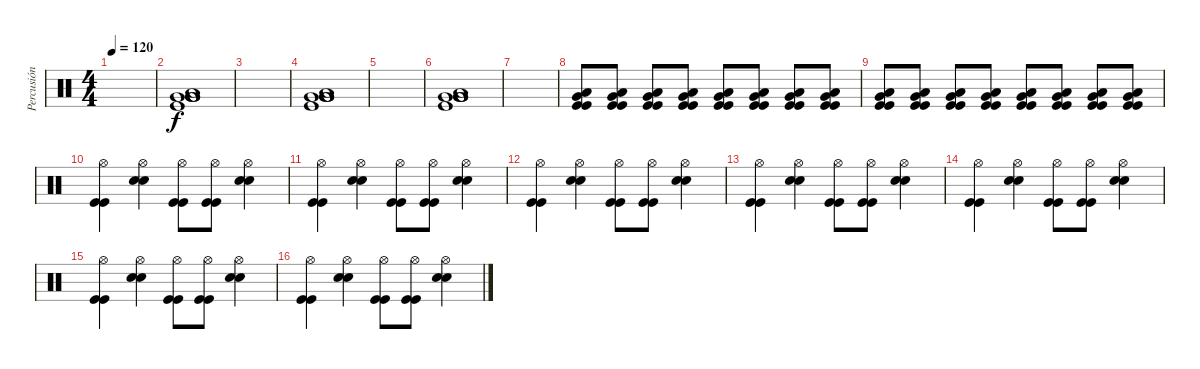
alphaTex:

\track ("Percusión" "Percusión") {instrument percussion}
\staff {score}
\articulation defaults
\ts (4 4)
\tempo 120
\clef neutral
\ks c
|
("Very Low Tom (hit)" "Very Low Tom (hit)" "Kick (hit)" "Very Low Tom (hit)" "Very Low Tom (hit)" "Low Tom (hit)").1 |
|
("Very Low Tom (hit)" "Very Low Tom (hit)" "Kick (hit)" "Very Low Tom (hit)" "Very Low Tom (hit)" "Low Tom (hit)").1 |
|
("Very Low Tom (hit)" "Very Low Tom (hit)" "Kick (hit)" "Very Low Tom (hit)" "Very Low Tom (hit)" "Low Tom (hit)").1 |
|
("Very Low Tom (hit)" "Kick (hit)" "Low Tom (hit)" "Kick (hit)").8 ("Very Low Tom (hit)" "Kick (hit)" "Low Tom (hit)" "Kick (hit)").8 ("Very Low Tom (hit)" "Kick (hit)" "Low Tom (hit)" "Kick (hit)").8 ("Very Low Tom (hit)" "Kick (hit)" "Low Tom (hit)" "Kick (hit)").8 ("Very Low Tom (hit)" "Kick (hit)" "Low Tom (hit)" "Kick (hit)").8 ("Very Low Tom (hit)" "Kick (hit)" "Low Tom (hit)" "Kick (hit)").8 ("Very Low Tom (hit)" "Kick (hit)" "Low Tom (hit)" "Kick (hit)").8 ("Very Low Tom (hit)" "Kick (hit)" "Low Tom (hit)" "Kick (hit)").8 |
("Very Low Tom (hit)" "Kick (hit)" "Low Tom (hit)" "Kick (hit)").8 ("Very Low Tom (hit)" "Kick (hit)" "Low Tom (hit)" "Kick (hit)").8 ("Very Low Tom (hit)" "Kick (hit)" "Low Tom (hit)" "Kick (hit)").8 ("Very Low Tom (hit)" "Kick (hit)" "Low Tom (hit)" "Kick (hit)").8 ("Very Low Tom (hit)" "Kick (hit)" "Low Tom (hit)" "Kick (hit)").8 ("Very Low Tom (hit)" "Kick (hit)" "Low Tom (hit)" "Kick (hit)").8 ("Very Low Tom (hit)" "Kick (hit)" "Low Tom (hit)" "Kick (hit)").8 ("Very Low Tom (hit)" "Kick (hit)" "Low Tom (hit)" "Kick (hit)").8 |
("Kick (hit)" "Kick (hit)" "Hi-Hat (open)").4 ("Electric Snare (hit)" "Snare (hit) 2" "Hi-Hat (open)").4 ("Kick (hit)" "Kick (hit)" "Hi-Hat (open)").8 ("Kick (hit)" "Kick (hit)" "Hi-Hat (open)").8 ("Electric Snare (hit)" "Snare (hit) 2" "Hi-Hat (open)").4 |
("Kick (hit)" "Kick (hit)" "Hi-Hat (open)").4 ("Electric Snare (hit)" "Snare (hit) 2" "Hi-Hat (open)").4 ("Kick (hit)" "Kick (hit)" "Hi-Hat (open)").8 ("Kick (hit)" "Kick (hit)" "Hi-Hat (open)").8 ("Electric Snare (hit)" "Snare (hit) 2" "Hi-Hat (open)").4 |
("Kick (hit)" "Kick (hit)" "Hi-Hat (open)").4 ("Electric Snare (hit)" "Snare (hit) 2" "Hi-Hat (open)").4 ("Kick (hit)" "Kick (hit)" "Hi-Hat (open)").8 ("Kick (hit)" "Kick (hit)" "Hi-Hat (open)").8 ("Electric Snare (hit)" "Snare (hit) 2" "Hi-Hat (open)").4 |
("Kick (hit)" "Kick (hit)" "Hi-Hat (open)").4 ("Electric Snare (hit)" "Snare (hit) 2" "Hi-Hat (open)").4 ("Kick (hit)" "Kick (hit)" "Hi-Hat (open)").8 ("Kick (hit)" "Kick (hit)" "Hi-Hat (open)").8 ("Electric Snare (hit)" "Snare (hit) 2" "Hi-Hat (open)").4 |
("Kick (hit)" "Kick (hit)" "Hi-Hat (open)").4 ("Electric Snare (hit)" "Snare (hit) 2" "Hi-Hat (open)").4 ("Kick (hit)" "Kick (hit)" "Hi-Hat (open)").8 ("Kick (hit)" "Kick (hit)" "Hi-Hat (open)").8 ("Electric Snare (hit)" "Snare (hit) 2" "Hi-Hat (open)").4 |
("Kick (hit)" "Kick (hit)" "Hi-Hat (open)").4 ("Electric Snare (hit)" "Snare (hit) 2" "Hi-Hat (open)").4 ("Kick (hit)" "Kick (hit)" "Hi-Hat (open)").8 ("Kick (hit)" "Kick (hit)" "Hi-Hat (open)").8 ("Electric Snare (hit)" "Snare (hit) 2" "Hi-Hat (open)").4 |
("Kick (hit)" "Kick (hit)" "Hi-Hat (open)").4{volume 12} ("Electric Snare (hit)" "Snare (hit) 2" "Hi-Hat (open)").4 ("Kick (hit)" "Kick (hit)" "Hi-Hat (open)").8 ("Kick (hit)" "Kick (hit)" "Hi-Hat (open)").8 ("Electric Snare (hit)" "Snare (hit) 2" "Hi-Hat (open)").4
